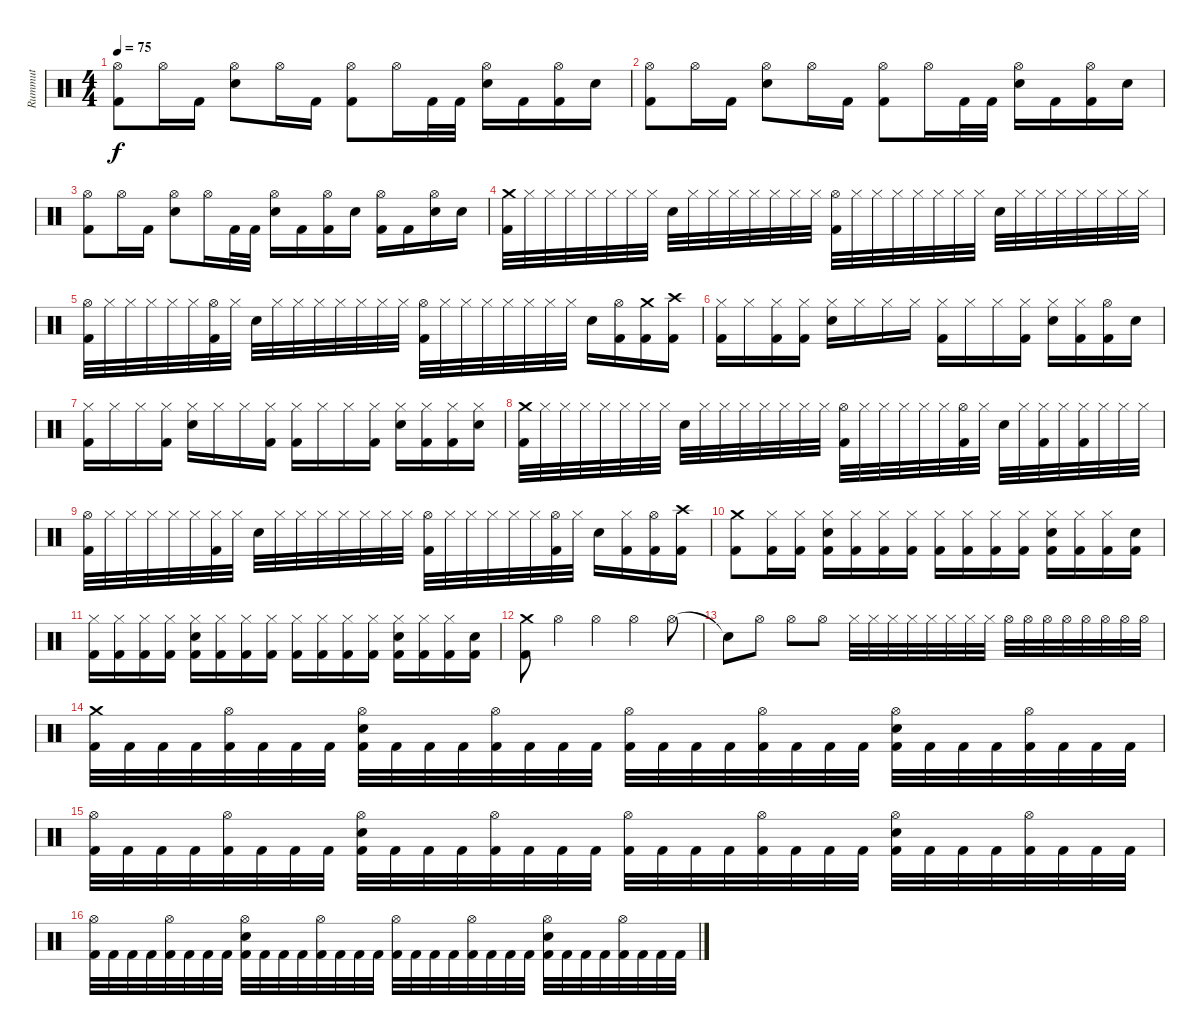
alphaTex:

\track ("Rummut" "Rummut") {instrument percussion}
\staff {score}
\articulation defaults
\ts (4 4)
\tempo 75
\clef neutral
\ks c
("Hi-Hat (open)" "Kick (hit) 2").8{dy f} "Hi-Hat (open)".16 "Kick (hit) 2".16 ("Hi-Hat (open)" "Snare (hit) 2").8 "Hi-Hat (open)".16 "Kick (hit) 2".16 ("Hi-Hat (open)" "Kick (hit) 2").8 "Hi-Hat (open)".16 "Kick (hit) 2".32 "Kick (hit) 2".32 ("Hi-Hat (open)" "Snare (hit) 2").16 "Kick (hit) 2".16 ("Hi-Hat (open)" "Kick (hit) 2").16 "Snare (hit) 2".16 |
("Hi-Hat (open)" "Kick (hit) 2").8 "Hi-Hat (open)".16 "Kick (hit) 2".16 ("Hi-Hat (open)" "Snare (hit) 2").8 "Hi-Hat (open)".16 "Kick (hit) 2".16 ("Hi-Hat (open)" "Kick (hit) 2").8 "Hi-Hat (open)".16 "Kick (hit) 2".32 "Kick (hit) 2".32 ("Hi-Hat (open)" "Snare (hit) 2").16 "Kick (hit) 2".16 ("Hi-Hat (open)" "Kick (hit) 2").16 "Snare (hit) 2".16 |
("Hi-Hat (open)" "Kick (hit) 2").8 "Hi-Hat (open)".16 "Kick (hit) 2".16 ("Hi-Hat (open)" "Snare (hit) 2").8 "Hi-Hat (open)".16 "Kick (hit) 2".32 "Kick (hit) 2".32 ("Hi-Hat (open)" "Snare (hit) 2").16 "Kick (hit) 2".16 ("Hi-Hat (open)" "Kick (hit) 2").16 "Snare (hit) 2".16 ("Hi-Hat (open)" "Kick (hit) 2").16 "Kick (hit) 2".16 ("Hi-Hat (open)" "Snare (hit) 2").16 "Snare (hit) 2".16 |
("Crash medium (hit)" "Kick (hit) 2").32 "Hi-Hat (closed)".32 "Hi-Hat (closed)".32 "Hi-Hat (closed)".32 "Hi-Hat (closed)".32 "Hi-Hat (closed)".32 "Hi-Hat (closed)".32 "Hi-Hat (closed)".32 "Snare (hit) 2".32 "Hi-Hat (closed)".32 "Hi-Hat (closed)".32 "Hi-Hat (closed)".32 "Hi-Hat (closed)".32 "Hi-Hat (closed)".32 "Hi-Hat (closed)".32 "Hi-Hat (closed)".32 ("Hi-Hat (open)" "Kick (hit) 2").32 "Hi-Hat (closed)".32 "Hi-Hat (closed)".32 "Hi-Hat (closed)".32 "Hi-Hat (closed)".32 "Hi-Hat (closed)".32 "Hi-Hat (closed)".32 "Hi-Hat (closed)".32 "Snare (hit) 2".32 "Hi-Hat (closed)".32 "Hi-Hat (closed)".32 "Hi-Hat (closed)".32 "Hi-Hat (closed)".32 "Hi-Hat (closed)".32 "Hi-Hat (closed)".32 "Hi-Hat (closed)".32 |
("Hi-Hat (open)" "Kick (hit) 2").32 "Hi-Hat (closed)".32 "Hi-Hat (closed)".32 "Hi-Hat (closed)".32 "Hi-Hat (closed)".32 "Hi-Hat (closed)".32 ("Hi-Hat (open)" "Kick (hit) 2").32 "Hi-Hat (closed)".32 "Snare (hit) 2".32 "Hi-Hat (closed)".32 "Hi-Hat (closed)".32 "Hi-Hat (closed)".32 "Hi-Hat (closed)".32 "Hi-Hat (closed)".32 "Hi-Hat (closed)".32 "Hi-Hat (closed)".32 ("Hi-Hat (open)" "Kick (hit) 2").32 "Hi-Hat (closed)".32 "Hi-Hat (closed)".32 "Hi-Hat (closed)".32 "Hi-Hat (closed)".32 "Hi-Hat (closed)".32 "Hi-Hat (closed)".32 "Hi-Hat (closed)".32 "Snare (hit) 2".16 ("Hi-Hat (open)" "Kick (hit) 2").16 ("Crash medium (hit)" "Kick (hit) 2").16 ("Crash high (hit)" "Kick (hit) 2").16 |
("Hi-Hat (closed)" "Kick (hit) 2").16 "Hi-Hat (closed)".16 ("Hi-Hat (closed)" "Kick (hit) 2").16 ("Hi-Hat (closed)" "Kick (hit) 2").16 ("Hi-Hat (closed)" "Snare (hit) 2").16 "Hi-Hat (closed)".16 "Hi-Hat (closed)".16 "Hi-Hat (closed)".16 ("Hi-Hat (closed)" "Kick (hit) 2").16 "Hi-Hat (closed)".16 "Hi-Hat (closed)".16 ("Hi-Hat (closed)" "Kick (hit) 2").16 ("Hi-Hat (closed)" "Snare (hit) 2").16 ("Hi-Hat (closed)" "Kick (hit) 2").16 ("Hi-Hat (open)" "Kick (hit) 2").16 "Snare (hit) 2".16 |
("Hi-Hat (closed)" "Kick (hit) 2").16 "Hi-Hat (closed)".16 "Hi-Hat (closed)".16 ("Hi-Hat (closed)" "Kick (hit) 2").16 ("Hi-Hat (closed)" "Snare (hit) 2").16 "Hi-Hat (closed)".16 "Hi-Hat (closed)".16 ("Hi-Hat (closed)" "Kick (hit) 2").16 ("Hi-Hat (closed)" "Kick (hit) 2").16 "Hi-Hat (closed)".16 "Hi-Hat (closed)".16 ("Hi-Hat (closed)" "Kick (hit) 2").16 ("Hi-Hat (closed)" "Snare (hit) 2").16 ("Hi-Hat (closed)" "Kick (hit) 2").16 ("Hi-Hat (closed)" "Kick (hit) 2").16 ("Hi-Hat (closed)" "Snare (hit) 2").16 |
("Crash medium (hit)" "Kick (hit) 2").32 "Hi-Hat (closed)".32 "Hi-Hat (closed)".32 "Hi-Hat (closed)".32 "Hi-Hat (closed)".32 "Hi-Hat (closed)".32 "Hi-Hat (closed)".32 "Hi-Hat (closed)".32 "Snare (hit) 2".32 "Hi-Hat (closed)".32 "Hi-Hat (closed)".32 "Hi-Hat (closed)".32 "Hi-Hat (closed)".32 "Hi-Hat (closed)".32 "Hi-Hat (closed)".32 "Hi-Hat (closed)".32 ("Hi-Hat (open)" "Kick (hit) 2").32 "Hi-Hat (closed)".32 "Hi-Hat (closed)".32 "Hi-Hat (closed)".32 "Hi-Hat (closed)".32 "Hi-Hat (closed)".32 ("Hi-Hat (open)" "Kick (hit) 2").32 "Hi-Hat (closed)".32 "Snare (hit) 2".32 "Hi-Hat (closed)".32 ("Hi-Hat (closed)" "Kick (hit) 2").32 "Hi-Hat (closed)".32 ("Hi-Hat (closed)" "Kick (hit) 2").32 "Hi-Hat (closed)".32 "Hi-Hat (closed)".32 "Hi-Hat (closed)".32 |
("Hi-Hat (open)" "Kick (hit) 2").32 "Hi-Hat (closed)".32 "Hi-Hat (closed)".32 "Hi-Hat (closed)".32 "Hi-Hat (closed)".32 "Hi-Hat (closed)".32 ("Hi-Hat (closed)" "Kick (hit) 2").32 "Hi-Hat (closed)".32 "Snare (hit) 2".32 "Hi-Hat (closed)".32 "Hi-Hat (closed)".32 "Hi-Hat (closed)".32 "Hi-Hat (closed)".32 "Hi-Hat (closed)".32 "Hi-Hat (closed)".32 "Hi-Hat (closed)".32 ("Hi-Hat (open)" "Kick (hit) 2").32 "Hi-Hat (closed)".32 "Hi-Hat (closed)".32 "Hi-Hat (closed)".32 "Hi-Hat (closed)".32 "Hi-Hat (closed)".32 ("Hi-Hat (open)" "Kick (hit) 2").32 "Hi-Hat (closed)".32 "Snare (hit) 2".16 ("Hi-Hat (closed)" "Kick (hit) 2").16 ("Hi-Hat (open)" "Kick (hit) 2").16 ("Crash high (hit)" "Kick (hit) 2").16 |
("Crash medium (hit)" "Kick (hit) 2").8 ("Hi-Hat (closed)" "Kick (hit) 2").16 ("Hi-Hat (closed)" "Kick (hit) 2").16 ("Hi-Hat (closed)" "Snare (hit) 2" "Kick (hit) 2").16 ("Hi-Hat (closed)" "Kick (hit) 2").16 ("Hi-Hat (closed)" "Kick (hit) 2").16 ("Hi-Hat (closed)" "Kick (hit) 2").16 ("Hi-Hat (closed)" "Kick (hit) 2").16 ("Hi-Hat (closed)" "Kick (hit) 2").16 ("Hi-Hat (closed)" "Kick (hit) 2").16 ("Hi-Hat (closed)" "Kick (hit) 2").16 ("Hi-Hat (closed)" "Snare (hit) 2" "Kick (hit) 2").16 ("Hi-Hat (closed)" "Kick (hit) 2").16 ("Hi-Hat (closed)" "Kick (hit) 2").16 ("Snare (hit) 2" "Kick (hit) 2").16 |
("Hi-Hat (closed)" "Kick (hit) 2").16 ("Hi-Hat (closed)" "Kick (hit) 2").16 ("Hi-Hat (closed)" "Kick (hit) 2").16 ("Hi-Hat (closed)" "Kick (hit) 2").16 ("Hi-Hat (closed)" "Snare (hit) 2" "Kick (hit) 2").16 ("Hi-Hat (closed)" "Kick (hit) 2").16 ("Hi-Hat (closed)" "Kick (hit) 2").16 ("Hi-Hat (closed)" "Kick (hit) 2").16 ("Hi-Hat (closed)" "Kick (hit) 2").16 ("Hi-Hat (closed)" "Kick (hit) 2").16 ("Hi-Hat (closed)" "Kick (hit) 2").16 ("Hi-Hat (closed)" "Kick (hit) 2").16 ("Hi-Hat (closed)" "Snare (hit) 2" "Kick (hit) 2").16 ("Hi-Hat (closed)" "Kick (hit) 2").16 ("Hi-Hat (closed)" "Kick (hit) 2").16 ("Snare (hit) 2" "Kick (hit) 2").16 |
("Crash medium (hit)" "Kick (hit) 2").8 "Hi-Hat (open)".4 "Hi-Hat (open)".4 "Hi-Hat (open)".4 "Hi-Hat (open)".8 |
"Snare (hit)"{t}.8 "Hi-Hat (open)".8 "Hi-Hat (open)".8 "Hi-Hat (open)".8 "Hi-Hat (closed)".32 "Hi-Hat (closed)".32 "Hi-Hat (closed)".32 "Hi-Hat (closed)".32 "Hi-Hat (closed)".32 "Hi-Hat (closed)".32 "Hi-Hat (closed)".32 "Hi-Hat (closed)".32 "Hi-Hat (open)".32 "Hi-Hat (open)".32 "Hi-Hat (open)".32 "Hi-Hat (open)".32 "Hi-Hat (open)".32 "Hi-Hat (open)".32 "Hi-Hat (open)".32 "Hi-Hat (open)".32 |
("Crash medium (hit)" "Kick (hit) 2").32 "Kick (hit) 2".32 "Kick (hit) 2".32 "Kick (hit) 2".32 ("Hi-Hat (open)" "Kick (hit) 2").32 "Kick (hit) 2".32 "Kick (hit) 2".32 "Kick (hit) 2".32 ("Hi-Hat (open)" "Snare (hit) 2" "Kick (hit) 2").32 "Kick (hit) 2".32 "Kick (hit) 2".32 "Kick (hit) 2".32 ("Hi-Hat (open)" "Kick (hit) 2").32 "Kick (hit) 2".32 "Kick (hit) 2".32 "Kick (hit) 2".32 ("Hi-Hat (open)" "Kick (hit) 2").32 "Kick (hit) 2".32 "Kick (hit) 2".32 "Kick (hit) 2".32 ("Hi-Hat (open)" "Kick (hit) 2").32 "Kick (hit) 2".32 "Kick (hit) 2".32 "Kick (hit) 2".32 ("Hi-Hat (open)" "Snare (hit) 2" "Kick (hit) 2").32 "Kick (hit) 2".32 "Kick (hit) 2".32 "Kick (hit) 2".32 ("Hi-Hat (open)" "Kick (hit) 2").32 "Kick (hit) 2".32 "Kick (hit) 2".32 "Kick (hit) 2".32 |
("Hi-Hat (open)" "Kick (hit) 2").32 "Kick (hit) 2".32 "Kick (hit) 2".32 "Kick (hit) 2".32 ("Hi-Hat (open)" "Kick (hit) 2").32 "Kick (hit) 2".32 "Kick (hit) 2".32 "Kick (hit) 2".32 ("Hi-Hat (open)" "Snare (hit) 2" "Kick (hit) 2").32 "Kick (hit) 2".32 "Kick (hit) 2".32 "Kick (hit) 2".32 ("Hi-Hat (open)" "Kick (hit) 2").32 "Kick (hit) 2".32 "Kick (hit) 2".32 "Kick (hit) 2".32 ("Hi-Hat (open)" "Kick (hit) 2").32 "Kick (hit) 2".32 "Kick (hit) 2".32 "Kick (hit) 2".32 ("Hi-Hat (open)" "Kick (hit) 2").32 "Kick (hit) 2".32 "Kick (hit) 2".32 "Kick (hit) 2".32 ("Hi-Hat (open)" "Snare (hit) 2" "Kick (hit) 2").32 "Kick (hit) 2".32 "Kick (hit) 2".32 "Kick (hit) 2".32 ("Hi-Hat (open)" "Kick (hit) 2").32 "Kick (hit) 2".32 "Kick (hit) 2".32 "Kick (hit) 2".32 |
("Hi-Hat (open)" "Kick (hit) 2").32 "Kick (hit) 2".32 "Kick (hit) 2".32 "Kick (hit) 2".32 ("Hi-Hat (open)" "Kick (hit) 2").32 "Kick (hit) 2".32 "Kick (hit) 2".32 "Kick (hit) 2".32 ("Hi-Hat (open)" "Snare (hit) 2" "Kick (hit) 2").32 "Kick (hit) 2".32 "Kick (hit) 2".32 "Kick (hit) 2".32 ("Hi-Hat (open)" "Kick (hit) 2").32 "Kick (hit) 2".32 "Kick (hit) 2".32 "Kick (hit) 2".32 ("Hi-Hat (open)" "Kick (hit) 2").32 "Kick (hit) 2".32 "Kick (hit) 2".32 "Kick (hit) 2".32 ("Hi-Hat (open)" "Kick (hit) 2").32 "Kick (hit) 2".32 "Kick (hit) 2".32 "Kick (hit) 2".32 ("Hi-Hat (open)" "Snare (hit) 2" "Kick (hit) 2").32 "Kick (hit) 2".32 "Kick (hit) 2".32 "Kick (hit) 2".32 ("Hi-Hat (open)" "Kick (hit) 2").32 "Kick (hit) 2".32 "Kick (hit) 2".32 "Kick (hit) 2".32
